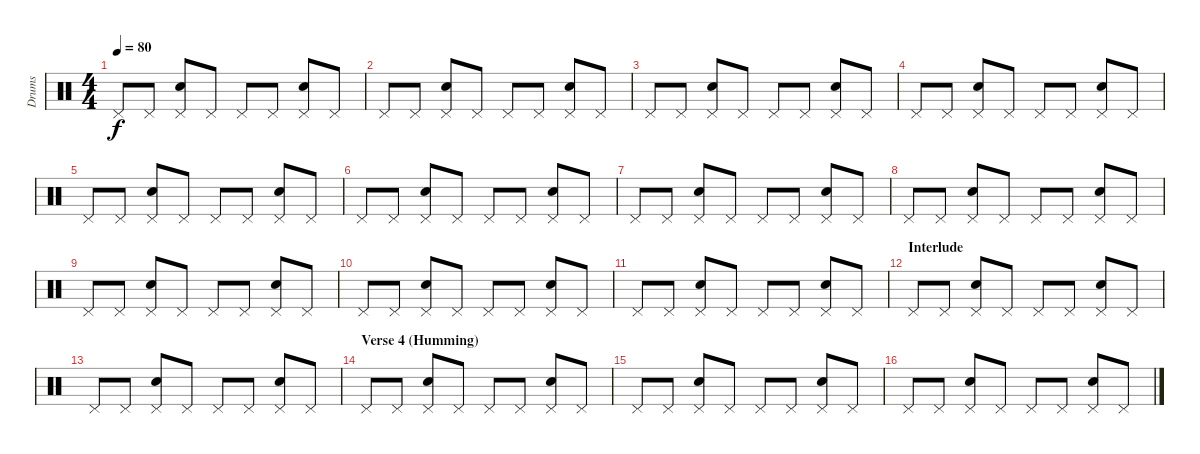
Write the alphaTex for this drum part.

\track ("Drums" "Drums") {instrument percussion}
\staff {score}
\articulation defaults
\ts (4 4)
\tempo 80
\clef neutral
\ks c "Pedal Hi-Hat (hit)".8{dy f} "Pedal Hi-Hat (hit)".8
("Pedal Hi-Hat (hit)" "Snare (hit) 2").8 "Pedal Hi-Hat (hit)".8 "Pedal Hi-Hat (hit)".8 "Pedal Hi-Hat (hit)".8 ("Pedal Hi-Hat (hit)" "Snare (hit) 2").8 "Pedal Hi-Hat (hit)".8 |
"Pedal Hi-Hat (hit)".8 "Pedal Hi-Hat (hit)".8 ("Pedal Hi-Hat (hit)" "Snare (hit) 2").8 "Pedal Hi-Hat (hit)".8 "Pedal Hi-Hat (hit)".8 "Pedal Hi-Hat (hit)".8 ("Pedal Hi-Hat (hit)" "Snare (hit) 2").8 "Pedal Hi-Hat (hit)".8 |
"Pedal Hi-Hat (hit)".8 "Pedal Hi-Hat (hit)".8 ("Pedal Hi-Hat (hit)" "Snare (hit) 2").8 "Pedal Hi-Hat (hit)".8 "Pedal Hi-Hat (hit)".8 "Pedal Hi-Hat (hit)".8 ("Pedal Hi-Hat (hit)" "Snare (hit) 2").8 "Pedal Hi-Hat (hit)".8 |
"Pedal Hi-Hat (hit)".8 "Pedal Hi-Hat (hit)".8 ("Pedal Hi-Hat (hit)" "Snare (hit) 2").8 "Pedal Hi-Hat (hit)".8 "Pedal Hi-Hat (hit)".8 "Pedal Hi-Hat (hit)".8 ("Pedal Hi-Hat (hit)" "Snare (hit) 2").8 "Pedal Hi-Hat (hit)".8 |
"Pedal Hi-Hat (hit)".8 "Pedal Hi-Hat (hit)".8 ("Pedal Hi-Hat (hit)" "Snare (hit) 2").8 "Pedal Hi-Hat (hit)".8 "Pedal Hi-Hat (hit)".8 "Pedal Hi-Hat (hit)".8 ("Pedal Hi-Hat (hit)" "Snare (hit) 2").8 "Pedal Hi-Hat (hit)".8 |
"Pedal Hi-Hat (hit)".8 "Pedal Hi-Hat (hit)".8 ("Pedal Hi-Hat (hit)" "Snare (hit) 2").8 "Pedal Hi-Hat (hit)".8 "Pedal Hi-Hat (hit)".8 "Pedal Hi-Hat (hit)".8 ("Pedal Hi-Hat (hit)" "Snare (hit) 2").8 "Pedal Hi-Hat (hit)".8 |
"Pedal Hi-Hat (hit)".8 "Pedal Hi-Hat (hit)".8 ("Pedal Hi-Hat (hit)" "Snare (hit) 2").8 "Pedal Hi-Hat (hit)".8 "Pedal Hi-Hat (hit)".8 "Pedal Hi-Hat (hit)".8 ("Pedal Hi-Hat (hit)" "Snare (hit) 2").8 "Pedal Hi-Hat (hit)".8 |
"Pedal Hi-Hat (hit)".8 "Pedal Hi-Hat (hit)".8 ("Pedal Hi-Hat (hit)" "Snare (hit) 2").8 "Pedal Hi-Hat (hit)".8 "Pedal Hi-Hat (hit)".8 "Pedal Hi-Hat (hit)".8 ("Pedal Hi-Hat (hit)" "Snare (hit) 2").8 "Pedal Hi-Hat (hit)".8 |
"Pedal Hi-Hat (hit)".8 "Pedal Hi-Hat (hit)".8 ("Pedal Hi-Hat (hit)" "Snare (hit) 2").8 "Pedal Hi-Hat (hit)".8 "Pedal Hi-Hat (hit)".8 "Pedal Hi-Hat (hit)".8 ("Pedal Hi-Hat (hit)" "Snare (hit) 2").8 "Pedal Hi-Hat (hit)".8 |
"Pedal Hi-Hat (hit)".8 "Pedal Hi-Hat (hit)".8 ("Pedal Hi-Hat (hit)" "Snare (hit) 2").8 "Pedal Hi-Hat (hit)".8 "Pedal Hi-Hat (hit)".8 "Pedal Hi-Hat (hit)".8 ("Pedal Hi-Hat (hit)" "Snare (hit) 2").8 "Pedal Hi-Hat (hit)".8 |
"Pedal Hi-Hat (hit)".8 "Pedal Hi-Hat (hit)".8 ("Pedal Hi-Hat (hit)" "Snare (hit) 2").8 "Pedal Hi-Hat (hit)".8 "Pedal Hi-Hat (hit)".8 "Pedal Hi-Hat (hit)".8 ("Pedal Hi-Hat (hit)" "Snare (hit) 2").8 "Pedal Hi-Hat (hit)".8 |
\section ("" "Interlude")
"Pedal Hi-Hat (hit)".8 "Pedal Hi-Hat (hit)".8 ("Pedal Hi-Hat (hit)" "Snare (hit) 2").8 "Pedal Hi-Hat (hit)".8 "Pedal Hi-Hat (hit)".8 "Pedal Hi-Hat (hit)".8 ("Pedal Hi-Hat (hit)" "Snare (hit) 2").8 "Pedal Hi-Hat (hit)".8 |
"Pedal Hi-Hat (hit)".8 "Pedal Hi-Hat (hit)".8 ("Pedal Hi-Hat (hit)" "Snare (hit) 2").8 "Pedal Hi-Hat (hit)".8 "Pedal Hi-Hat (hit)".8 "Pedal Hi-Hat (hit)".8 ("Pedal Hi-Hat (hit)" "Snare (hit) 2").8 "Pedal Hi-Hat (hit)".8 |
\section ("" "Verse 4 (Humming)")
"Pedal Hi-Hat (hit)".8 "Pedal Hi-Hat (hit)".8 ("Pedal Hi-Hat (hit)" "Snare (hit) 2").8 "Pedal Hi-Hat (hit)".8 "Pedal Hi-Hat (hit)".8 "Pedal Hi-Hat (hit)".8 ("Pedal Hi-Hat (hit)" "Snare (hit) 2").8 "Pedal Hi-Hat (hit)".8 |
"Pedal Hi-Hat (hit)".8 "Pedal Hi-Hat (hit)".8 ("Pedal Hi-Hat (hit)" "Snare (hit) 2").8 "Pedal Hi-Hat (hit)".8 "Pedal Hi-Hat (hit)".8 "Pedal Hi-Hat (hit)".8 ("Pedal Hi-Hat (hit)" "Snare (hit) 2").8 "Pedal Hi-Hat (hit)".8 |
"Pedal Hi-Hat (hit)".8 "Pedal Hi-Hat (hit)".8 ("Pedal Hi-Hat (hit)" "Snare (hit) 2").8 "Pedal Hi-Hat (hit)".8 "Pedal Hi-Hat (hit)".8 "Pedal Hi-Hat (hit)".8 ("Pedal Hi-Hat (hit)" "Snare (hit) 2").8 "Pedal Hi-Hat (hit)".8
